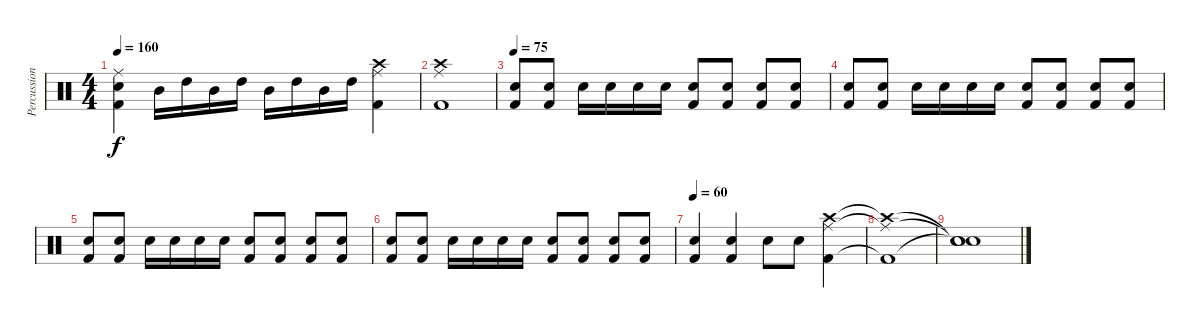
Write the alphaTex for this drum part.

\track ("Percussion" "Percussion") {instrument percussion}
\staff {score}
\articulation defaults
\ts (4 4)
\tempo 160
\clef neutral
\ks c
("Ride (middle)" "Electric Snare (hit)" "Kick (hit) 2").4{dy f} "Mid Tom (hit)".16 "High Tom (hit)".16 "Mid Tom (hit)".16 "High Tom (hit)".16 "Mid Tom (hit)".16 "High Tom (hit)".16 "Mid Tom (hit)".16 "High Tom (hit)".16 ("Ride (middle)" "Crash high (hit)" "Kick (hit) 2").4 |
("Ride (middle)" "Crash high (hit)" "Kick (hit) 2").1 |
\tempo 75
("Electric Snare (hit)" "Kick (hit) 2").8 ("Electric Snare (hit)" "Kick (hit) 2").8 "Electric Snare (hit)".16 "Electric Snare (hit)".16 "Electric Snare (hit)".16 "Electric Snare (hit)".16 ("Electric Snare (hit)" "Kick (hit) 2").8 ("Electric Snare (hit)" "Kick (hit) 2").8 ("Electric Snare (hit)" "Kick (hit) 2").8 ("Electric Snare (hit)" "Kick (hit) 2").8 |
("Electric Snare (hit)" "Kick (hit) 2").8 ("Electric Snare (hit)" "Kick (hit) 2").8 "Electric Snare (hit)".16 "Electric Snare (hit)".16 "Electric Snare (hit)".16 "Electric Snare (hit)".16 ("Electric Snare (hit)" "Kick (hit) 2").8 ("Electric Snare (hit)" "Kick (hit) 2").8 ("Electric Snare (hit)" "Kick (hit) 2").8 ("Electric Snare (hit)" "Kick (hit) 2").8 |
("Electric Snare (hit)" "Kick (hit) 2").8 ("Electric Snare (hit)" "Kick (hit) 2").8 "Electric Snare (hit)".16 "Electric Snare (hit)".16 "Electric Snare (hit)".16 "Electric Snare (hit)".16 ("Electric Snare (hit)" "Kick (hit) 2").8 ("Electric Snare (hit)" "Kick (hit) 2").8 ("Electric Snare (hit)" "Kick (hit) 2").8 ("Electric Snare (hit)" "Kick (hit) 2").8 |
("Electric Snare (hit)" "Kick (hit) 2").8 ("Electric Snare (hit)" "Kick (hit) 2").8 "Electric Snare (hit)".16 "Electric Snare (hit)".16 "Electric Snare (hit)".16 "Electric Snare (hit)".16 ("Electric Snare (hit)" "Kick (hit) 2").8 ("Electric Snare (hit)" "Kick (hit) 2").8 ("Electric Snare (hit)" "Kick (hit) 2").8 ("Electric Snare (hit)" "Kick (hit) 2").8 |
\tempo 60
("Electric Snare (hit)" "Kick (hit) 2").4 ("Electric Snare (hit)" "Kick (hit) 2").4 "Electric Snare (hit)".8 "Electric Snare (hit)".8 ("Ride (middle)" "Crash high (hit)" "Kick (hit) 2").4 |
("Ride (middle)"{t} "Crash high (hit)"{t} "Kick (hit) 2"{t}).1 |
("Snare (hit)"{t} "Snare (hit)"{t} "Snare (hit)"{t}).1
